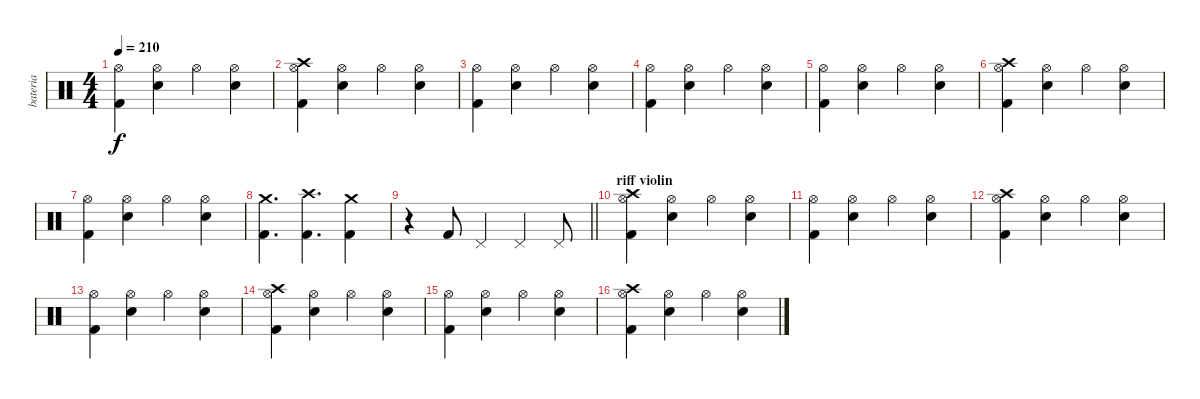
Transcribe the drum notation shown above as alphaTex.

\track ("bateria" "bateria") {instrument percussion}
\staff {score}
\articulation defaults
\ts (4 4)
\tempo 210
\clef neutral
\ks c
("Hi-Hat (open)" "Kick (hit) 2").4{dy f} ("Hi-Hat (open)" "Electric Snare (hit)").4 "Hi-Hat (open)".4 ("Hi-Hat (open)" "Electric Snare (hit)").4 |
("Hi-Hat (open)" "Kick (hit) 2" "Crash high (hit)").4 ("Hi-Hat (open)" "Electric Snare (hit)").4 "Hi-Hat (open)".4 ("Hi-Hat (open)" "Electric Snare (hit)").4 |
("Hi-Hat (open)" "Kick (hit) 2").4 ("Hi-Hat (open)" "Electric Snare (hit)").4 "Hi-Hat (open)".4 ("Hi-Hat (open)" "Electric Snare (hit)").4 |
("Hi-Hat (open)" "Kick (hit) 2").4 ("Hi-Hat (open)" "Electric Snare (hit)").4 "Hi-Hat (open)".4 ("Hi-Hat (open)" "Electric Snare (hit)").4 |
("Hi-Hat (open)" "Kick (hit) 2").4 ("Hi-Hat (open)" "Electric Snare (hit)").4 "Hi-Hat (open)".4 ("Hi-Hat (open)" "Electric Snare (hit)").4 |
("Hi-Hat (open)" "Kick (hit) 2" "Crash high (hit)").4 ("Hi-Hat (open)" "Electric Snare (hit)").4 "Hi-Hat (open)".4 ("Hi-Hat (open)" "Electric Snare (hit)").4 |
("Hi-Hat (open)" "Kick (hit) 2").4 ("Hi-Hat (open)" "Electric Snare (hit)").4 "Hi-Hat (open)".4 ("Hi-Hat (open)" "Electric Snare (hit)").4 |
("Kick (hit) 2" "Crash medium (hit)").4{d} ("Kick (hit) 2" "Crash high (hit)").4{d} ("Kick (hit) 2" "Crash medium (hit)").4 |
\barLineRight lightlight
r.4 "Kick (hit) 2".8 "Pedal Hi-Hat (hit)".4 "Pedal Hi-Hat (hit)".4 "Pedal Hi-Hat (hit)".8 |
\section ("" "riff violin")
("Hi-Hat (open)" "Kick (hit) 2" "Crash high (hit)").4 ("Hi-Hat (open)" "Electric Snare (hit)").4 "Hi-Hat (open)".4 ("Hi-Hat (open)" "Electric Snare (hit)").4 |
("Hi-Hat (open)" "Kick (hit) 2").4 ("Hi-Hat (open)" "Electric Snare (hit)").4 "Hi-Hat (open)".4 ("Hi-Hat (open)" "Electric Snare (hit)").4 |
("Hi-Hat (open)" "Kick (hit) 2" "Crash high (hit)").4 ("Hi-Hat (open)" "Electric Snare (hit)").4 "Hi-Hat (open)".4 ("Hi-Hat (open)" "Electric Snare (hit)").4 |
("Hi-Hat (open)" "Kick (hit) 2").4 ("Hi-Hat (open)" "Electric Snare (hit)").4 "Hi-Hat (open)".4 ("Hi-Hat (open)" "Electric Snare (hit)").4 |
("Hi-Hat (open)" "Kick (hit) 2" "Crash high (hit)").4 ("Hi-Hat (open)" "Electric Snare (hit)").4 "Hi-Hat (open)".4 ("Hi-Hat (open)" "Electric Snare (hit)").4 |
("Hi-Hat (open)" "Kick (hit) 2").4 ("Hi-Hat (open)" "Electric Snare (hit)").4 "Hi-Hat (open)".4 ("Hi-Hat (open)" "Electric Snare (hit)").4 |
("Hi-Hat (open)" "Kick (hit) 2" "Crash high (hit)").4 ("Hi-Hat (open)" "Electric Snare (hit)").4 "Hi-Hat (open)".4 ("Hi-Hat (open)" "Electric Snare (hit)").4
